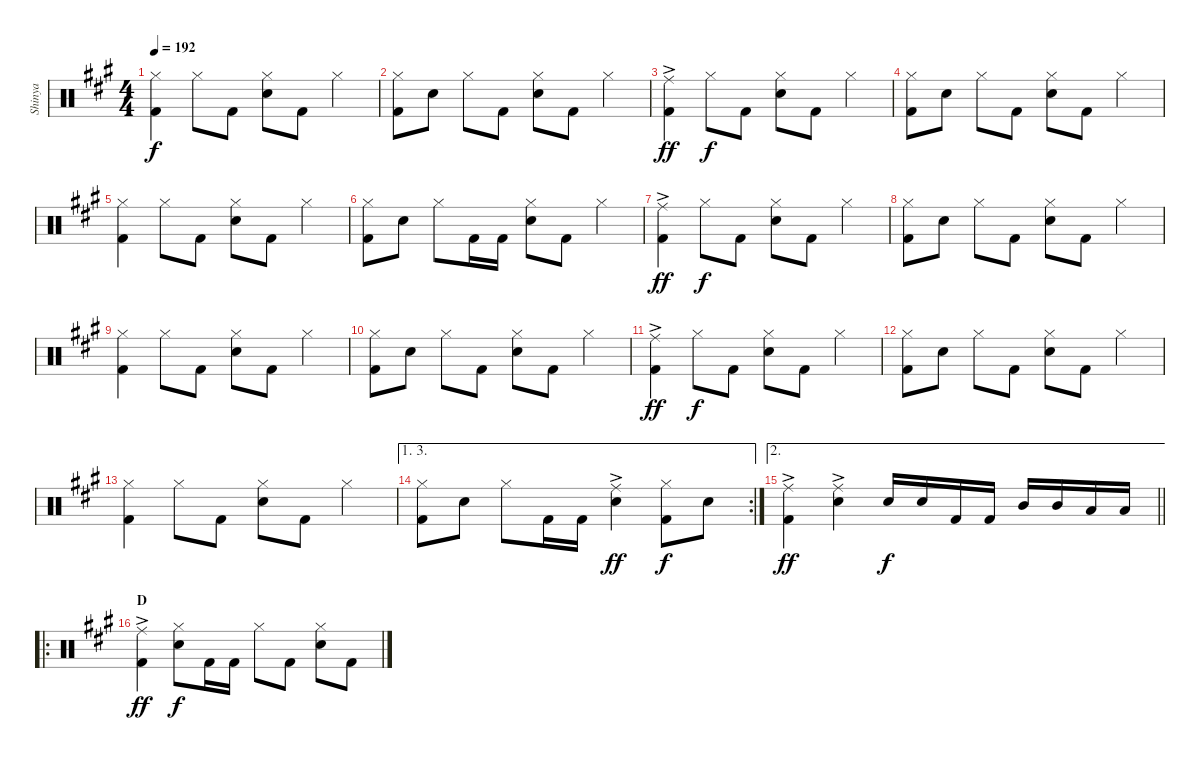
\track ("Shinya" "Shinya") {instrument percussion}
\staff {score}
\articulation defaults
\ts (4 4)
\tempo 192
\clef neutral
\ks a
("Hi-Hat (closed)" "Kick (hit) 2").4{dy f} "Hi-Hat (closed)".8 "Kick (hit) 2".8 ("Hi-Hat (closed)" "Snare (hit) 2").8 "Kick (hit) 2".8 "Hi-Hat (closed)".4 |
("Hi-Hat (closed)" "Kick (hit) 2").8 "Snare (hit) 2".8 "Hi-Hat (closed)".8 "Kick (hit) 2".8 ("Hi-Hat (closed)" "Snare (hit) 2").8 "Kick (hit) 2".8 "Hi-Hat (closed)".4 |
("Ride (middle)"{ac} "Kick (hit) 2").4{dy ff} "Hi-Hat (closed)".8{dy f} "Kick (hit) 2".8 ("Hi-Hat (closed)" "Snare (hit) 2").8 "Kick (hit) 2".8 "Hi-Hat (closed)".4 |
("Hi-Hat (closed)" "Kick (hit) 2").8 "Snare (hit) 2".8 "Hi-Hat (closed)".8 "Kick (hit) 2".8 ("Hi-Hat (closed)" "Snare (hit) 2").8 "Kick (hit) 2".8 "Hi-Hat (closed)".4 |
("Hi-Hat (closed)" "Kick (hit) 2").4 "Hi-Hat (closed)".8 "Kick (hit) 2".8 ("Hi-Hat (closed)" "Snare (hit) 2").8 "Kick (hit) 2".8 "Hi-Hat (closed)".4 |
("Hi-Hat (closed)" "Kick (hit) 2").8 "Snare (hit) 2".8 "Hi-Hat (closed)".8 "Kick (hit) 2".16 "Kick (hit) 2".16 ("Hi-Hat (closed)" "Snare (hit) 2").8 "Kick (hit) 2".8 "Hi-Hat (closed)".4 |
("Ride (middle)"{ac} "Kick (hit) 2").4{dy ff} "Hi-Hat (closed)".8{dy f} "Kick (hit) 2".8 ("Hi-Hat (closed)" "Snare (hit) 2").8 "Kick (hit) 2".8 "Hi-Hat (closed)".4 |
("Hi-Hat (closed)" "Kick (hit) 2").8 "Snare (hit) 2".8 "Hi-Hat (closed)".8 "Kick (hit) 2".8 ("Hi-Hat (closed)" "Snare (hit) 2").8 "Kick (hit) 2".8 "Hi-Hat (closed)".4 |
("Hi-Hat (closed)" "Kick (hit) 2").4 "Hi-Hat (closed)".8 "Kick (hit) 2".8 ("Hi-Hat (closed)" "Snare (hit) 2").8 "Kick (hit) 2".8 "Hi-Hat (closed)".4 |
("Hi-Hat (closed)" "Kick (hit) 2").8 "Snare (hit) 2".8 "Hi-Hat (closed)".8 "Kick (hit) 2".8 ("Hi-Hat (closed)" "Snare (hit) 2").8 "Kick (hit) 2".8 "Hi-Hat (closed)".4 |
("Ride (middle)"{ac} "Kick (hit) 2").4{dy ff} "Hi-Hat (closed)".8{dy f} "Kick (hit) 2".8 ("Hi-Hat (closed)" "Snare (hit) 2").8 "Kick (hit) 2".8 "Hi-Hat (closed)".4 |
("Hi-Hat (closed)" "Kick (hit) 2").8 "Snare (hit) 2".8 "Hi-Hat (closed)".8 "Kick (hit) 2".8 ("Hi-Hat (closed)" "Snare (hit) 2").8 "Kick (hit) 2".8 "Hi-Hat (closed)".4 |
("Hi-Hat (closed)" "Kick (hit) 2").4 "Hi-Hat (closed)".8 "Kick (hit) 2".8 ("Hi-Hat (closed)" "Snare (hit) 2").8 "Kick (hit) 2".8 "Hi-Hat (closed)".4 |
\ae (1 3)
\rc 2
("Hi-Hat (closed)" "Kick (hit) 2").8 "Snare (hit) 2".8 "Hi-Hat (closed)".8 "Kick (hit) 2".16 "Kick (hit) 2".16 ("Ride (middle)"{ac} "Snare (hit) 2").4{dy ff} ("Hi-Hat (closed)" "Kick (hit) 2").8{dy f} "Snare (hit) 2".8 |
\ae 2
\barLineRight lightlight
("Ride (middle)"{ac} "Kick (hit) 2").4{dy ff} ("Ride (middle)"{ac} "Snare (hit) 2").4 "Snare (hit) 2".16{dy f} "Snare (hit) 2".16 "Kick (hit) 2".16 "Kick (hit) 2".16 "Mid Tom (hit)".16 "Mid Tom (hit)".16 "Low Tom (hit)".16 "Low Tom (hit)".16 |
\ro
\section ("" "D")
("Ride (middle)"{ac} "Kick (hit) 2").4{dy ff} ("Hi-Hat (closed)" "Snare (hit) 2").8{dy f} "Kick (hit) 2".16 "Kick (hit) 2".16 "Hi-Hat (closed)".8 "Kick (hit) 2".8 ("Hi-Hat (closed)" "Snare (hit) 2").8 "Kick (hit) 2".8
